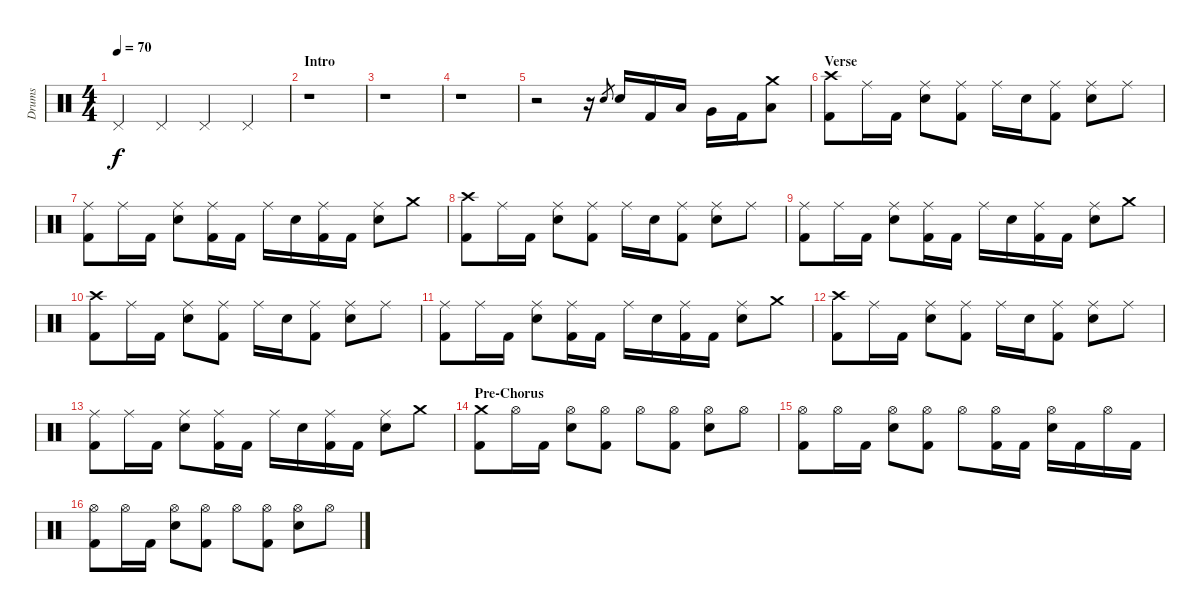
\track ("Drums" "Drums") {instrument percussion}
\staff {score}
\articulation defaults
\ts (4 4)
\tempo 70
\clef neutral
\ks c "Pedal Hi-Hat (hit)".4{dy f} "Pedal Hi-Hat (hit)".4 "Pedal Hi-Hat (hit)".4 "Pedal Hi-Hat (hit)".4
|
\section ("" "Intro")
r.1 |
r.1 |
r.1 |
r.2 r.16 "Electric Snare (hit)".8{gr} "Electric Snare (hit)".16 "Kick (hit) 2".16 "Low Tom (hit)".16 "Very Low Tom (hit)".16 "Kick (hit) 2".16 ("Crash medium (hit)" "Low Tom (hit)").8 |
\section ("" "Verse")
("Crash high (hit)" "Kick (hit) 2").8 "Ride (middle)".16 "Kick (hit) 2".16 ("Ride (middle)" "Electric Snare (hit)").8 ("Ride (middle)" "Kick (hit) 2").8 "Ride (middle)".16 "Electric Snare (hit)".16 ("Ride (middle)" "Kick (hit) 2").8 ("Ride (middle)" "Electric Snare (hit)").8 "Ride (middle)".8 |
("Ride (middle)" "Kick (hit) 2").8 "Ride (middle)".16 "Kick (hit) 2".16 ("Ride (middle)" "Electric Snare (hit)").8 ("Ride (middle)" "Kick (hit) 2").16 "Kick (hit) 2".16 "Ride (middle)".16 "Electric Snare (hit)".16 ("Ride (middle)" "Kick (hit) 2").16 "Kick (hit) 2".16 ("Ride (middle)" "Electric Snare (hit)").8 "Crash medium (hit)".8 |
("Crash high (hit)" "Kick (hit) 2").8 "Ride (middle)".16 "Kick (hit) 2".16 ("Ride (middle)" "Electric Snare (hit)").8 ("Ride (middle)" "Kick (hit) 2").8 "Ride (middle)".16 "Electric Snare (hit)".16 ("Ride (middle)" "Kick (hit) 2").8 ("Ride (middle)" "Electric Snare (hit)").8 "Ride (middle)".8 |
("Ride (middle)" "Kick (hit) 2").8 "Ride (middle)".16 "Kick (hit) 2".16 ("Ride (middle)" "Electric Snare (hit)").8 ("Ride (middle)" "Kick (hit) 2").16 "Kick (hit) 2".16 "Ride (middle)".16 "Electric Snare (hit)".16 ("Ride (middle)" "Kick (hit) 2").16 "Kick (hit) 2".16 ("Ride (middle)" "Electric Snare (hit)").8 "Crash medium (hit)".8 |
("Crash high (hit)" "Kick (hit) 2").8 "Ride (middle)".16 "Kick (hit) 2".16 ("Ride (middle)" "Electric Snare (hit)").8 ("Ride (middle)" "Kick (hit) 2").8 "Ride (middle)".16 "Electric Snare (hit)".16 ("Ride (middle)" "Kick (hit) 2").8 ("Ride (middle)" "Electric Snare (hit)").8 "Ride (middle)".8 |
("Ride (middle)" "Kick (hit) 2").8 "Ride (middle)".16 "Kick (hit) 2".16 ("Ride (middle)" "Electric Snare (hit)").8 ("Ride (middle)" "Kick (hit) 2").16 "Kick (hit) 2".16 "Ride (middle)".16 "Electric Snare (hit)".16 ("Ride (middle)" "Kick (hit) 2").16 "Kick (hit) 2".16 ("Ride (middle)" "Electric Snare (hit)").8 "Crash medium (hit)".8 |
("Crash high (hit)" "Kick (hit) 2").8 "Ride (middle)".16 "Kick (hit) 2".16 ("Ride (middle)" "Electric Snare (hit)").8 ("Ride (middle)" "Kick (hit) 2").8 "Ride (middle)".16 "Electric Snare (hit)".16 ("Ride (middle)" "Kick (hit) 2").8 ("Ride (middle)" "Electric Snare (hit)").8 "Ride (middle)".8 |
("Ride (middle)" "Kick (hit) 2").8 "Ride (middle)".16 "Kick (hit) 2".16 ("Ride (middle)" "Electric Snare (hit)").8 ("Ride (middle)" "Kick (hit) 2").16 "Kick (hit) 2".16 "Ride (middle)".16 "Electric Snare (hit)".16 ("Ride (middle)" "Kick (hit) 2").16 "Kick (hit) 2".16 ("Ride (middle)" "Electric Snare (hit)").8 "Crash medium (hit)".8 |
\section ("" "Pre-Chorus")
("Crash medium (hit)" "Kick (hit) 2").8 "Hi-Hat (open)".16 "Kick (hit) 2".16 ("Hi-Hat (open)" "Electric Snare (hit)").8 ("Hi-Hat (open)" "Kick (hit) 2").8 "Hi-Hat (open)".8 ("Hi-Hat (open)" "Kick (hit) 2").8 ("Hi-Hat (open)" "Electric Snare (hit)").8 "Hi-Hat (open)".8 |
("Hi-Hat (open)" "Kick (hit) 2").8 "Hi-Hat (open)".16 "Kick (hit) 2".16 ("Hi-Hat (open)" "Electric Snare (hit)").8 ("Hi-Hat (open)" "Kick (hit) 2").8 "Hi-Hat (open)".8 ("Hi-Hat (open)" "Kick (hit) 2").16 "Kick (hit) 2".16 ("Hi-Hat (open)" "Electric Snare (hit)").16 "Kick (hit) 2".16 "Hi-Hat (open)".16 "Kick (hit) 2".16 |
("Hi-Hat (open)" "Kick (hit) 2").8 "Hi-Hat (open)".16 "Kick (hit) 2".16 ("Hi-Hat (open)" "Electric Snare (hit)").8 ("Hi-Hat (open)" "Kick (hit) 2").8 "Hi-Hat (open)".8 ("Hi-Hat (open)" "Kick (hit) 2").8 ("Hi-Hat (open)" "Electric Snare (hit)").8 "Hi-Hat (open)".8
